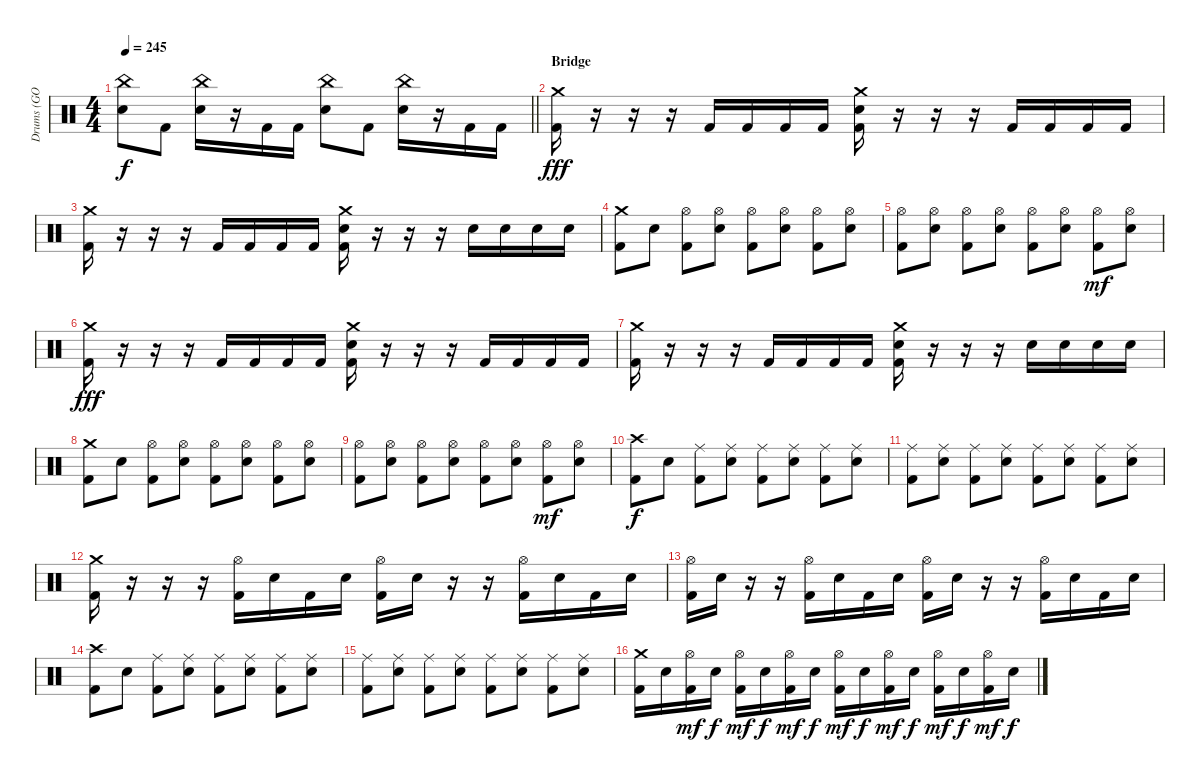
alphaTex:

\track ("Drums (GO DIRK)" "Drums (GO ") {instrument percussion}
\staff {score}
\articulation defaults
\ts (4 4)
\tempo 245
\clef neutral
\barLineRight lightlight
\ks c
("China (hit)" "Electric Snare (hit)").8{dy f} "Kick (hit) 2".8 ("China (hit)" "Electric Snare (hit)").16 r.16 "Kick (hit) 2".16 "Kick (hit) 2".16 ("China (hit)" "Electric Snare (hit)").8 "Kick (hit) 2".8 ("China (hit)" "Electric Snare (hit)").16 r.16 "Kick (hit) 2".16 "Kick (hit) 2".16 |
\section ("" "Bridge")
("Crash medium (hit)" "Kick (hit) 2").16{dy fff} r.16 r.16 r.16 "Kick (hit) 2".16 "Kick (hit) 2".16 "Kick (hit) 2".16 "Kick (hit) 2".16 ("Crash medium (hit)" "Electric Snare (hit)" "Kick (hit) 2").16 r.16 r.16 r.16 "Kick (hit) 2".16 "Kick (hit) 2".16 "Kick (hit) 2".16 "Kick (hit) 2".16 |
("Crash medium (hit)" "Kick (hit) 2").16 r.16 r.16 r.16 "Kick (hit) 2".16 "Kick (hit) 2".16 "Kick (hit) 2".16 "Kick (hit) 2".16 ("Crash medium (hit)" "Electric Snare (hit)" "Kick (hit) 2").16 r.16 r.16 r.16 "Electric Snare (hit)".16 "Electric Snare (hit)".16 "Electric Snare (hit)".16 "Electric Snare (hit)".16 |
("Crash medium (hit)" "Kick (hit) 2").8 "Electric Snare (hit)".8 ("Hi-Hat (open)" "Kick (hit) 2").8 ("Hi-Hat (open)" "Electric Snare (hit)").8 ("Hi-Hat (open)" "Kick (hit) 2").8 ("Hi-Hat (open)" "Electric Snare (hit)").8 ("Hi-Hat (open)" "Kick (hit) 2").8 ("Hi-Hat (open)" "Electric Snare (hit)").8 |
("Hi-Hat (open)" "Kick (hit) 2").8 ("Hi-Hat (open)" "Electric Snare (hit)").8 ("Hi-Hat (open)" "Kick (hit) 2").8 ("Hi-Hat (open)" "Electric Snare (hit)").8 ("Hi-Hat (open)" "Kick (hit) 2").8 ("Hi-Hat (open)" "Electric Snare (hit)").8 ("Hi-Hat (open)" "Kick (hit) 2").8{dy mf} ("Hi-Hat (open)" "Electric Snare (hit)").8 |
("Crash medium (hit)" "Kick (hit) 2").16{dy fff} r.16 r.16 r.16 "Kick (hit) 2".16 "Kick (hit) 2".16 "Kick (hit) 2".16 "Kick (hit) 2".16 ("Crash medium (hit)" "Electric Snare (hit)" "Kick (hit) 2").16 r.16 r.16 r.16 "Kick (hit) 2".16 "Kick (hit) 2".16 "Kick (hit) 2".16 "Kick (hit) 2".16 |
("Crash medium (hit)" "Kick (hit) 2").16 r.16 r.16 r.16 "Kick (hit) 2".16 "Kick (hit) 2".16 "Kick (hit) 2".16 "Kick (hit) 2".16 ("Crash medium (hit)" "Electric Snare (hit)" "Kick (hit) 2").16 r.16 r.16 r.16 "Electric Snare (hit)".16 "Electric Snare (hit)".16 "Electric Snare (hit)".16 "Electric Snare (hit)".16 |
("Crash medium (hit)" "Kick (hit) 2").8 "Electric Snare (hit)".8 ("Hi-Hat (open)" "Kick (hit) 2").8 ("Hi-Hat (open)" "Electric Snare (hit)").8 ("Hi-Hat (open)" "Kick (hit) 2").8 ("Hi-Hat (open)" "Electric Snare (hit)").8 ("Hi-Hat (open)" "Kick (hit) 2").8 ("Hi-Hat (open)" "Electric Snare (hit)").8 |
("Hi-Hat (open)" "Kick (hit) 2").8 ("Hi-Hat (open)" "Electric Snare (hit)").8 ("Hi-Hat (open)" "Kick (hit) 2").8 ("Hi-Hat (open)" "Electric Snare (hit)").8 ("Hi-Hat (open)" "Kick (hit) 2").8 ("Hi-Hat (open)" "Electric Snare (hit)").8 ("Hi-Hat (open)" "Kick (hit) 2").8{dy mf} ("Hi-Hat (open)" "Electric Snare (hit)").8 |
("Crash high (hit)" "Kick (hit) 2").8{dy f} "Electric Snare (hit)".8 ("Ride (middle)" "Kick (hit) 2").8 ("Ride (middle)" "Electric Snare (hit)").8 ("Ride (middle)" "Kick (hit) 2").8 ("Ride (middle)" "Electric Snare (hit)").8 ("Ride (middle)" "Kick (hit) 2").8 ("Ride (middle)" "Electric Snare (hit)").8 |
("Ride (middle)" "Kick (hit) 2").8 ("Ride (middle)" "Electric Snare (hit)").8 ("Ride (middle)" "Kick (hit) 2").8 ("Ride (middle)" "Electric Snare (hit)").8 ("Ride (middle)" "Kick (hit) 2").8 ("Ride (middle)" "Electric Snare (hit)").8 ("Ride (middle)" "Kick (hit) 2").8 ("Ride (middle)" "Electric Snare (hit)").8 |
("Crash medium (hit)" "Kick (hit) 2").16 r.16 r.16 r.16 ("Hi-Hat (open)" "Kick (hit) 2").16 "Electric Snare (hit)".16 "Kick (hit) 2".16 "Electric Snare (hit)".16 ("Hi-Hat (open)" "Kick (hit) 2").16 "Electric Snare (hit)".16 r.16 r.16 ("Hi-Hat (open)" "Kick (hit) 2").16 "Electric Snare (hit)".16 "Kick (hit) 2".16 "Electric Snare (hit)".16 |
("Hi-Hat (open)" "Kick (hit) 2").16 "Electric Snare (hit)".16 r.16 r.16 ("Hi-Hat (open)" "Kick (hit) 2").16 "Electric Snare (hit)".16 "Kick (hit) 2".16 "Electric Snare (hit)".16 ("Hi-Hat (open)" "Kick (hit) 2").16 "Electric Snare (hit)".16 r.16 r.16 ("Hi-Hat (open)" "Kick (hit) 2").16 "Electric Snare (hit)".16 "Kick (hit) 2".16 "Electric Snare (hit)".16 |
("Crash high (hit)" "Kick (hit) 2").8 "Electric Snare (hit)".8 ("Ride (middle)" "Kick (hit) 2").8 ("Ride (middle)" "Electric Snare (hit)").8 ("Ride (middle)" "Kick (hit) 2").8 ("Ride (middle)" "Electric Snare (hit)").8 ("Ride (middle)" "Kick (hit) 2").8 ("Ride (middle)" "Electric Snare (hit)").8 |
("Ride (middle)" "Kick (hit) 2").8 ("Ride (middle)" "Electric Snare (hit)").8 ("Ride (middle)" "Kick (hit) 2").8 ("Ride (middle)" "Electric Snare (hit)").8 ("Ride (middle)" "Kick (hit) 2").8 ("Ride (middle)" "Electric Snare (hit)").8 ("Ride (middle)" "Kick (hit) 2").8 ("Ride (middle)" "Electric Snare (hit)").8 |
("Crash medium (hit)" "Kick (hit) 2").16 "Electric Snare (hit)".16 ("Hi-Hat (open)" "Kick (hit) 2").16{dy mf} "Electric Snare (hit)".16{dy f} ("Hi-Hat (open)" "Kick (hit) 2").16{dy mf} "Electric Snare (hit)".16{dy f} ("Hi-Hat (open)" "Kick (hit) 2").16{dy mf} "Electric Snare (hit)".16{dy f} ("Hi-Hat (open)" "Kick (hit) 2").16{dy mf} "Electric Snare (hit)".16{dy f} ("Hi-Hat (open)" "Kick (hit) 2").16{dy mf} "Electric Snare (hit)".16{dy f} ("Hi-Hat (open)" "Kick (hit) 2").16{dy mf} "Electric Snare (hit)".16{dy f} ("Hi-Hat (open)" "Kick (hit) 2").16{dy mf} "Electric Snare (hit)".16{dy f}
